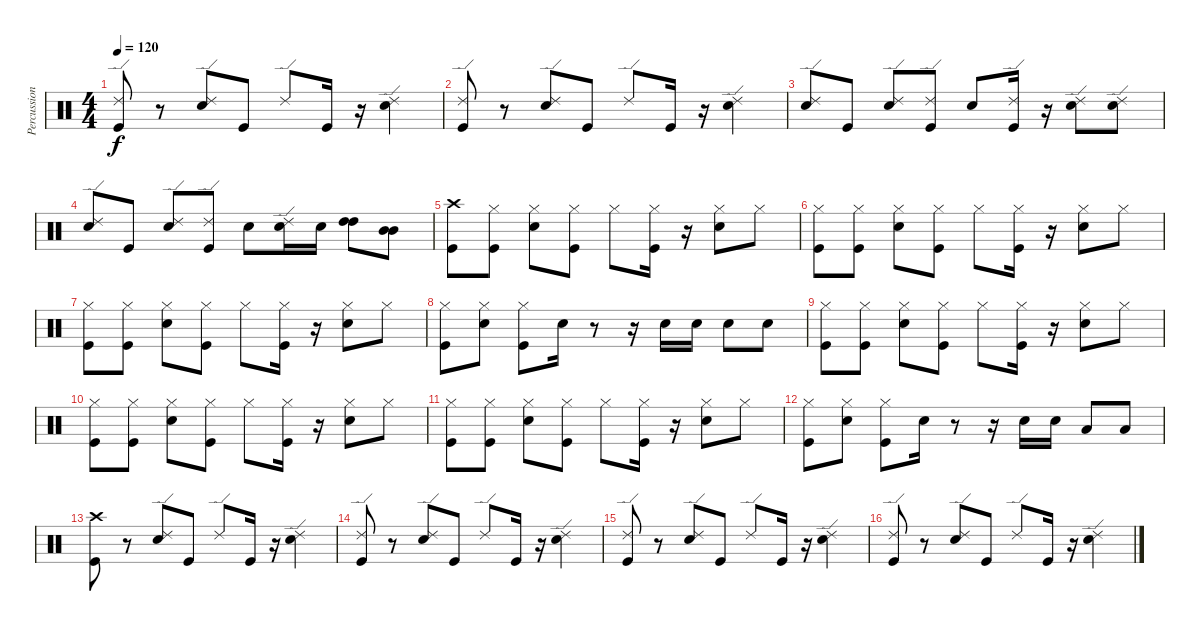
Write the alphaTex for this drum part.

\track ("Percussion" "Percussion") {instrument percussion}
\staff {score}
\articulation defaults
\ts (4 4)
\tempo 120
\clef neutral
\ks c
("Ride (edge) 2" "Kick (hit)").8{dy f} r.8 ("Ride (edge) 2" "Electric Snare (hit)").8 "Kick (hit)".8 "Ride (edge) 2".8 "Kick (hit)".16 r.16 ("Ride (edge) 2" "Electric Snare (hit)").4 |
("Ride (edge) 2" "Kick (hit)").8 r.8 ("Ride (edge) 2" "Electric Snare (hit)").8 "Kick (hit)".8 "Ride (edge) 2".8 "Kick (hit)".16 r.16 ("Ride (edge) 2" "Electric Snare (hit)").4 |
("Ride (edge) 2" "Electric Snare (hit)").8 "Kick (hit)".8 ("Ride (edge) 2" "Electric Snare (hit)").8 ("Ride (edge) 2" "Kick (hit)").8 "Electric Snare (hit)".8 ("Ride (edge) 2" "Kick (hit)").16 r.16 ("Ride (edge) 2" "Electric Snare (hit)").8 ("Ride (edge) 2" "Electric Snare (hit)").8 |
("Ride (edge) 2" "Electric Snare (hit)").8 "Kick (hit)".8 ("Ride (edge) 2" "Electric Snare (hit)").8 ("Ride (edge) 2" "Kick (hit)").8 "Electric Snare (hit)".8 ("Ride (edge) 2" "Electric Snare (hit)").16 "Electric Snare (hit)".16 ("High Tom (hit)" "High Tom (hit)").8 ("Mid Tom (hit)" "Mid Tom (hit)").8 |
("Crash high (hit)" "Kick (hit)").8 ("Hi-Hat (closed)" "Kick (hit)").8 ("Hi-Hat (closed)" "Electric Snare (hit)").8 ("Hi-Hat (closed)" "Kick (hit)").8 "Hi-Hat (closed)".8 ("Hi-Hat (closed)" "Kick (hit)").16 r.16 ("Hi-Hat (closed)" "Electric Snare (hit)").8 "Hi-Hat (closed)".8 |
("Hi-Hat (closed)" "Kick (hit)").8 ("Hi-Hat (closed)" "Kick (hit)").8 ("Hi-Hat (closed)" "Electric Snare (hit)").8 ("Hi-Hat (closed)" "Kick (hit)").8 "Hi-Hat (closed)".8 ("Hi-Hat (closed)" "Kick (hit)").16 r.16 ("Hi-Hat (closed)" "Electric Snare (hit)").8 "Hi-Hat (closed)".8 |
("Hi-Hat (closed)" "Kick (hit)").8 ("Hi-Hat (closed)" "Kick (hit)").8 ("Hi-Hat (closed)" "Electric Snare (hit)").8 ("Hi-Hat (closed)" "Kick (hit)").8 "Hi-Hat (closed)".8 ("Hi-Hat (closed)" "Kick (hit)").16 r.16 ("Hi-Hat (closed)" "Electric Snare (hit)").8 "Hi-Hat (closed)".8 |
("Hi-Hat (closed)" "Kick (hit)").8 ("Hi-Hat (closed)" "Electric Snare (hit)").8 ("Hi-Hat (closed)" "Kick (hit)").8 "Electric Snare (hit)".16 r.8 r.16 "Electric Snare (hit)".16 "Electric Snare (hit)".16 "Electric Snare (hit)".8 "Electric Snare (hit)".8 |
("Hi-Hat (closed)" "Kick (hit)").8 ("Hi-Hat (closed)" "Kick (hit)").8 ("Hi-Hat (closed)" "Electric Snare (hit)").8 ("Hi-Hat (closed)" "Kick (hit)").8 "Hi-Hat (closed)".8 ("Hi-Hat (closed)" "Kick (hit)").16 r.16 ("Hi-Hat (closed)" "Electric Snare (hit)").8 "Hi-Hat (closed)".8 |
("Hi-Hat (closed)" "Kick (hit)").8 ("Hi-Hat (closed)" "Kick (hit)").8 ("Hi-Hat (closed)" "Electric Snare (hit)").8 ("Hi-Hat (closed)" "Kick (hit)").8 "Hi-Hat (closed)".8 ("Hi-Hat (closed)" "Kick (hit)").16 r.16 ("Hi-Hat (closed)" "Electric Snare (hit)").8 "Hi-Hat (closed)".8 |
("Hi-Hat (closed)" "Kick (hit)").8 ("Hi-Hat (closed)" "Kick (hit)").8 ("Hi-Hat (closed)" "Electric Snare (hit)").8 ("Hi-Hat (closed)" "Kick (hit)").8 "Hi-Hat (closed)".8 ("Hi-Hat (closed)" "Kick (hit)").16 r.16 ("Hi-Hat (closed)" "Electric Snare (hit)").8 "Hi-Hat (closed)".8 |
("Hi-Hat (closed)" "Kick (hit)").8 ("Hi-Hat (closed)" "Electric Snare (hit)").8 ("Hi-Hat (closed)" "Kick (hit)").8 "Electric Snare (hit)".16 r.8 r.16 "Electric Snare (hit)".16 "Electric Snare (hit)".16 "Low Tom (hit)".8 "Low Tom (hit)".8 |
("Crash high (hit)" "Kick (hit)").8 r.8 ("Ride (edge) 2" "Electric Snare (hit)").8 "Kick (hit)".8 "Ride (edge) 2".8 "Kick (hit)".16 r.16 ("Ride (edge) 2" "Electric Snare (hit)").4 |
("Ride (edge) 2" "Kick (hit)").8 r.8 ("Ride (edge) 2" "Electric Snare (hit)").8 "Kick (hit)".8 "Ride (edge) 2".8 "Kick (hit)".16 r.16 ("Ride (edge) 2" "Electric Snare (hit)").4 |
("Ride (edge) 2" "Kick (hit)").8 r.8 ("Ride (edge) 2" "Electric Snare (hit)").8 "Kick (hit)".8 "Ride (edge) 2".8 "Kick (hit)".16 r.16 ("Ride (edge) 2" "Electric Snare (hit)").4 |
("Ride (edge) 2" "Kick (hit)").8 r.8 ("Ride (edge) 2" "Electric Snare (hit)").8 "Kick (hit)".8 "Ride (edge) 2".8 "Kick (hit)".16 r.16 ("Ride (edge) 2" "Electric Snare (hit)").4
